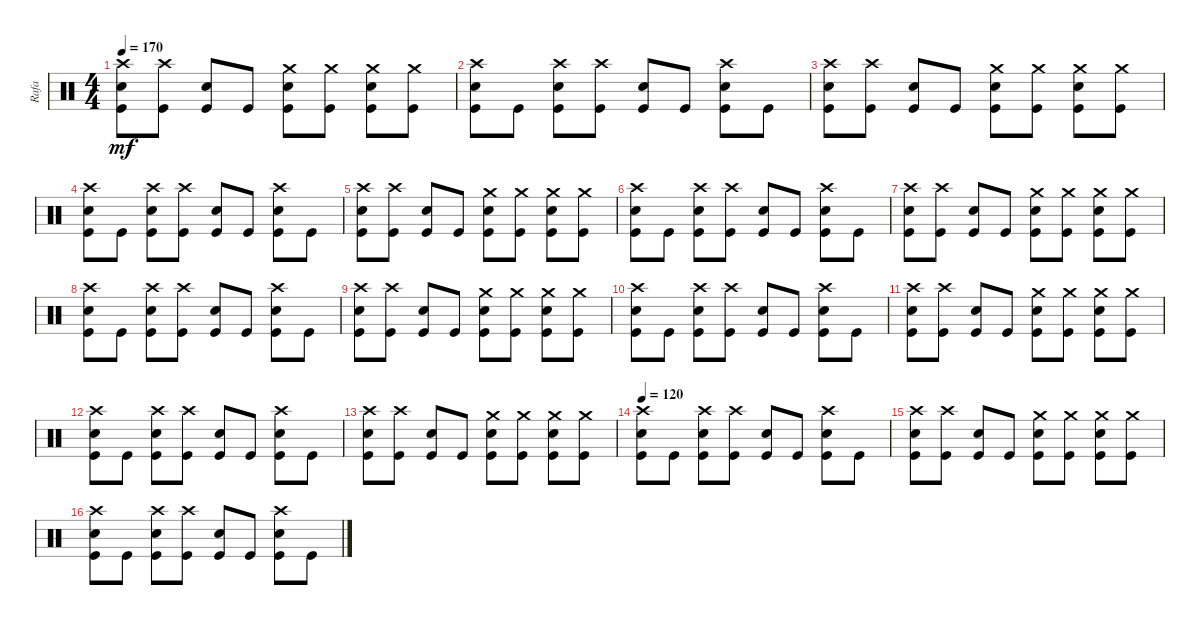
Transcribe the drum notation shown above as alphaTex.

\track ("Rafa" "Rafa") {instrument percussion}
\staff {score}
\articulation defaults
\ts (4 4)
\tempo 170
\clef neutral
\ks c
("Crash high (hit)" "Electric Snare (hit)" "Kick (hit)").8{dy mf} ("Crash high (hit)" "Kick (hit)").8 ("Electric Snare (hit)" "Kick (hit)").8 "Kick (hit)".8 ("Crash medium (hit)" "Electric Snare (hit)" "Kick (hit)").8 ("Crash medium (hit)" "Kick (hit)").8 ("Crash medium (hit)" "Electric Snare (hit)" "Kick (hit)").8 ("Crash medium (hit)" "Kick (hit)").8 |
("Crash high (hit)" "Electric Snare (hit)" "Kick (hit)").8{volume 10} "Kick (hit)".8 ("Crash high (hit)" "Electric Snare (hit)" "Kick (hit)").8 ("Crash high (hit)" "Kick (hit)").8 ("Electric Snare (hit)" "Kick (hit)").8 "Kick (hit)".8 ("Crash high (hit)" "Electric Snare (hit)" "Kick (hit)").8 "Kick (hit)".8 |
("Crash high (hit)" "Electric Snare (hit)" "Kick (hit)").8 ("Crash high (hit)" "Kick (hit)").8 ("Electric Snare (hit)" "Kick (hit)").8 "Kick (hit)".8 ("Crash medium (hit)" "Electric Snare (hit)" "Kick (hit)").8 ("Crash medium (hit)" "Kick (hit)").8 ("Crash medium (hit)" "Electric Snare (hit)" "Kick (hit)").8 ("Crash medium (hit)" "Kick (hit)").8 |
("Crash high (hit)" "Electric Snare (hit)" "Kick (hit)").8 "Kick (hit)".8 ("Crash high (hit)" "Electric Snare (hit)" "Kick (hit)").8 ("Crash high (hit)" "Kick (hit)").8 ("Electric Snare (hit)" "Kick (hit)").8 "Kick (hit)".8 ("Crash high (hit)" "Electric Snare (hit)" "Kick (hit)").8 "Kick (hit)".8 |
("Crash high (hit)" "Electric Snare (hit)" "Kick (hit)").8 ("Crash high (hit)" "Kick (hit)").8 ("Electric Snare (hit)" "Kick (hit)").8 "Kick (hit)".8 ("Crash medium (hit)" "Electric Snare (hit)" "Kick (hit)").8 ("Crash medium (hit)" "Kick (hit)").8 ("Crash medium (hit)" "Electric Snare (hit)" "Kick (hit)").8 ("Crash medium (hit)" "Kick (hit)").8 |
("Crash high (hit)" "Electric Snare (hit)" "Kick (hit)").8{volume 5} "Kick (hit)".8 ("Crash high (hit)" "Electric Snare (hit)" "Kick (hit)").8 ("Crash high (hit)" "Kick (hit)").8 ("Electric Snare (hit)" "Kick (hit)").8 "Kick (hit)".8 ("Crash high (hit)" "Electric Snare (hit)" "Kick (hit)").8 "Kick (hit)".8 |
("Crash high (hit)" "Electric Snare (hit)" "Kick (hit)").8 ("Crash high (hit)" "Kick (hit)").8 ("Electric Snare (hit)" "Kick (hit)").8 "Kick (hit)".8 ("Crash medium (hit)" "Electric Snare (hit)" "Kick (hit)").8 ("Crash medium (hit)" "Kick (hit)").8 ("Crash medium (hit)" "Electric Snare (hit)" "Kick (hit)").8 ("Crash medium (hit)" "Kick (hit)").8 |
("Crash high (hit)" "Electric Snare (hit)" "Kick (hit)").8 "Kick (hit)".8 ("Crash high (hit)" "Electric Snare (hit)" "Kick (hit)").8 ("Crash high (hit)" "Kick (hit)").8 ("Electric Snare (hit)" "Kick (hit)").8 "Kick (hit)".8 ("Crash high (hit)" "Electric Snare (hit)" "Kick (hit)").8 "Kick (hit)".8 |
("Crash high (hit)" "Electric Snare (hit)" "Kick (hit)").8 ("Crash high (hit)" "Kick (hit)").8 ("Electric Snare (hit)" "Kick (hit)").8 "Kick (hit)".8 ("Crash medium (hit)" "Electric Snare (hit)" "Kick (hit)").8 ("Crash medium (hit)" "Kick (hit)").8 ("Crash medium (hit)" "Electric Snare (hit)" "Kick (hit)").8 ("Crash medium (hit)" "Kick (hit)").8 |
("Crash high (hit)" "Electric Snare (hit)" "Kick (hit)").8{volume 0} "Kick (hit)".8 ("Crash high (hit)" "Electric Snare (hit)" "Kick (hit)").8 ("Crash high (hit)" "Kick (hit)").8 ("Electric Snare (hit)" "Kick (hit)").8 "Kick (hit)".8 ("Crash high (hit)" "Electric Snare (hit)" "Kick (hit)").8 "Kick (hit)".8 |
("Crash high (hit)" "Electric Snare (hit)" "Kick (hit)").8 ("Crash high (hit)" "Kick (hit)").8 ("Electric Snare (hit)" "Kick (hit)").8 "Kick (hit)".8 ("Crash medium (hit)" "Electric Snare (hit)" "Kick (hit)").8 ("Crash medium (hit)" "Kick (hit)").8 ("Crash medium (hit)" "Electric Snare (hit)" "Kick (hit)").8 ("Crash medium (hit)" "Kick (hit)").8 |
("Crash high (hit)" "Electric Snare (hit)" "Kick (hit)").8 "Kick (hit)".8 ("Crash high (hit)" "Electric Snare (hit)" "Kick (hit)").8 ("Crash high (hit)" "Kick (hit)").8 ("Electric Snare (hit)" "Kick (hit)").8 "Kick (hit)".8 ("Crash high (hit)" "Electric Snare (hit)" "Kick (hit)").8 "Kick (hit)".8 |
("Crash high (hit)" "Electric Snare (hit)" "Kick (hit)").8 ("Crash high (hit)" "Kick (hit)").8 ("Electric Snare (hit)" "Kick (hit)").8 "Kick (hit)".8 ("Crash medium (hit)" "Electric Snare (hit)" "Kick (hit)").8 ("Crash medium (hit)" "Kick (hit)").8 ("Crash medium (hit)" "Electric Snare (hit)" "Kick (hit)").8 ("Crash medium (hit)" "Kick (hit)").8 |
\tempo 120
("Crash high (hit)" "Electric Snare (hit)" "Kick (hit)").8 "Kick (hit)".8 ("Crash high (hit)" "Electric Snare (hit)" "Kick (hit)").8 ("Crash high (hit)" "Kick (hit)").8 ("Electric Snare (hit)" "Kick (hit)").8 "Kick (hit)".8 ("Crash high (hit)" "Electric Snare (hit)" "Kick (hit)").8 "Kick (hit)".8 |
("Crash high (hit)" "Electric Snare (hit)" "Kick (hit)").8 ("Crash high (hit)" "Kick (hit)").8 ("Electric Snare (hit)" "Kick (hit)").8 "Kick (hit)".8 ("Crash medium (hit)" "Electric Snare (hit)" "Kick (hit)").8 ("Crash medium (hit)" "Kick (hit)").8 ("Crash medium (hit)" "Electric Snare (hit)" "Kick (hit)").8 ("Crash medium (hit)" "Kick (hit)").8 |
("Crash high (hit)" "Electric Snare (hit)" "Kick (hit)").8 "Kick (hit)".8 ("Crash high (hit)" "Electric Snare (hit)" "Kick (hit)").8 ("Crash high (hit)" "Kick (hit)").8 ("Electric Snare (hit)" "Kick (hit)").8 "Kick (hit)".8 ("Crash high (hit)" "Electric Snare (hit)" "Kick (hit)").8 "Kick (hit)".8
